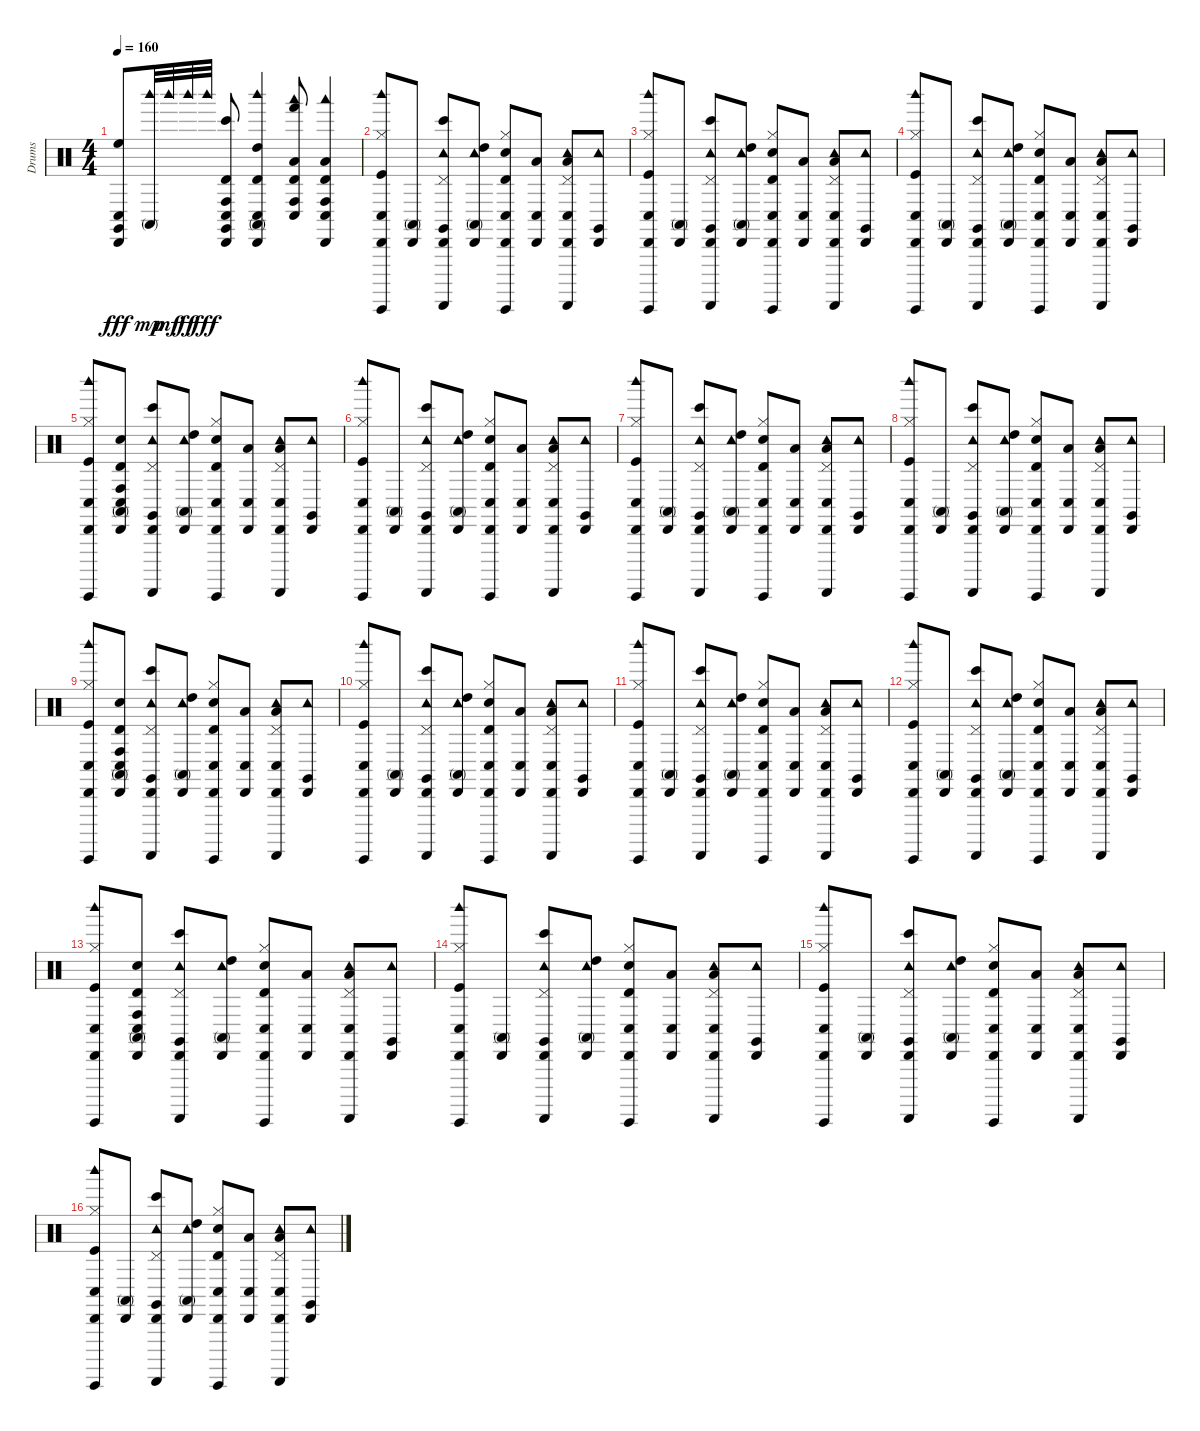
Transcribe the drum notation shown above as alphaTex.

\track ("Drums" "Drums") {instrument percussion}
\staff {score}
\articulation defaults
\ts (4 4)
\tempo 160
\clef neutral
\ks c
("Conga low (hit)" "High Floor Tom (hit)" "Cabasa (hit)" "Claves (hit)").8{dy fff} ("Conga high (mute)" "Woodblock high (hit)").32{dy mp} "Woodblock high (hit)".32{dy mf} "Woodblock high (hit)".32{dy ff} "Woodblock high (hit)".32{dy fff} ("Claves (hit)" "Bongo High (hit)" "Cabasa (hit)" "Timbale high (hit)" "Conga low (hit)" "Conga high (hit)").8 ("Woodblock high (hit)" "High Tom (hit)" "Conga high (mute)" "Cabasa (hit)" "Timbale high (hit)" "Conga low (hit)").4 ("Conga low (hit)" "Low Tom (hit)" "Woodblock low (hit)" "Timbale high (hit)" "Conga high (hit)" "Hand (hit)").8 ("Conga low (hit)" "Low Tom (hit)" "Cabasa (hit)" "Woodblock low (hit)" "Timbale high (hit)" "Conga high (hit)").4 |
("Kick (hit)" "Cabasa (hit)" "Hi-Hat (closed)" "Guiro (hit)" "Woodblock high (hit)" "Conga low (hit)").8 ("Cabasa (hit)" "Conga high (mute)").8 ("Tambourine (hit)" "Cabasa (hit)" "Pedal Hi-Hat (hit)" "Guiro (scrap-return)" "Claves (hit)" "Bongo High (hit)").8 ("Tambourine (hit)" "Cabasa (hit)" "High Tom (hit)" "Conga high (mute)").8 ("Electric Snare (hit)" "Cabasa (hit)" "Hi-Hat (closed)" "Guiro (hit)" "Timbale high (hit)" "Conga low (hit)").8 ("Cabasa (hit)" "Conga low (hit)" "Low Tom (hit)").8 ("Tambourine (hit)" "Cabasa (hit)" "Pedal Hi-Hat (hit)" "Guiro (scrap-return)" "Conga low (hit)" "Low Tom (hit)").8 ("Tambourine (hit)" "Cabasa (hit)" "Claves (hit)").8 |
("Kick (hit)" "Cabasa (hit)" "Hi-Hat (closed)" "Guiro (hit)" "Woodblock high (hit)" "Conga low (hit)").8 ("Cabasa (hit)" "Conga high (mute)").8 ("Tambourine (hit)" "Cabasa (hit)" "Pedal Hi-Hat (hit)" "Guiro (scrap-return)" "Claves (hit)" "Bongo High (hit)").8 ("Tambourine (hit)" "Cabasa (hit)" "High Tom (hit)" "Conga high (mute)").8 ("Electric Snare (hit)" "Cabasa (hit)" "Hi-Hat (closed)" "Guiro (hit)" "Timbale high (hit)" "Conga low (hit)").8 ("Cabasa (hit)" "Conga low (hit)" "Low Tom (hit)").8 ("Tambourine (hit)" "Cabasa (hit)" "Pedal Hi-Hat (hit)" "Guiro (scrap-return)" "Conga low (hit)" "Low Tom (hit)").8 ("Tambourine (hit)" "Cabasa (hit)" "Claves (hit)").8 |
("Kick (hit)" "Cabasa (hit)" "Hi-Hat (closed)" "Guiro (hit)" "Woodblock high (hit)" "Conga low (hit)").8 ("Cabasa (hit)" "Conga high (mute)").8 ("Tambourine (hit)" "Cabasa (hit)" "Pedal Hi-Hat (hit)" "Guiro (scrap-return)" "Claves (hit)" "Bongo High (hit)").8 ("Tambourine (hit)" "Cabasa (hit)" "High Tom (hit)" "Conga high (mute)").8 ("Electric Snare (hit)" "Cabasa (hit)" "Hi-Hat (closed)" "Guiro (hit)" "Timbale high (hit)" "Conga low (hit)").8 ("Cabasa (hit)" "Conga low (hit)" "Low Tom (hit)").8 ("Tambourine (hit)" "Cabasa (hit)" "Pedal Hi-Hat (hit)" "Guiro (scrap-return)" "Conga low (hit)" "Low Tom (hit)").8 ("Tambourine (hit)" "Cabasa (hit)" "Claves (hit)").8 |
("Kick (hit)" "Cabasa (hit)" "Hi-Hat (closed)" "Guiro (hit)" "Woodblock high (hit)" "Conga low (hit)").8 ("Cabasa (hit)" "Conga high (mute)" "Electric Snare (hit)" "Timbale high (hit)" "Conga low (hit)" "Conga high (hit)").8 ("Tambourine (hit)" "Cabasa (hit)" "Pedal Hi-Hat (hit)" "Guiro (scrap-return)" "Claves (hit)" "Bongo High (hit)").8 ("Tambourine (hit)" "Cabasa (hit)" "High Tom (hit)" "Conga high (mute)").8 ("Electric Snare (hit)" "Cabasa (hit)" "Hi-Hat (closed)" "Guiro (hit)" "Timbale high (hit)" "Conga low (hit)").8 ("Cabasa (hit)" "Conga low (hit)" "Low Tom (hit)").8 ("Tambourine (hit)" "Cabasa (hit)" "Pedal Hi-Hat (hit)" "Guiro (scrap-return)" "Conga low (hit)" "Low Tom (hit)").8 ("Tambourine (hit)" "Cabasa (hit)" "Claves (hit)").8 |
("Kick (hit)" "Cabasa (hit)" "Hi-Hat (closed)" "Guiro (hit)" "Woodblock high (hit)" "Conga low (hit)").8 ("Cabasa (hit)" "Conga high (mute)").8 ("Tambourine (hit)" "Cabasa (hit)" "Pedal Hi-Hat (hit)" "Guiro (scrap-return)" "Claves (hit)" "Bongo High (hit)").8 ("Tambourine (hit)" "Cabasa (hit)" "High Tom (hit)" "Conga high (mute)").8 ("Electric Snare (hit)" "Cabasa (hit)" "Hi-Hat (closed)" "Guiro (hit)" "Timbale high (hit)" "Conga low (hit)").8 ("Cabasa (hit)" "Conga low (hit)" "Low Tom (hit)").8 ("Tambourine (hit)" "Cabasa (hit)" "Pedal Hi-Hat (hit)" "Guiro (scrap-return)" "Conga low (hit)" "Low Tom (hit)").8 ("Tambourine (hit)" "Cabasa (hit)" "Claves (hit)").8 |
("Kick (hit)" "Cabasa (hit)" "Hi-Hat (closed)" "Guiro (hit)" "Woodblock high (hit)" "Conga low (hit)").8 ("Cabasa (hit)" "Conga high (mute)").8 ("Tambourine (hit)" "Cabasa (hit)" "Pedal Hi-Hat (hit)" "Guiro (scrap-return)" "Claves (hit)" "Bongo High (hit)").8 ("Tambourine (hit)" "Cabasa (hit)" "High Tom (hit)" "Conga high (mute)").8 ("Electric Snare (hit)" "Cabasa (hit)" "Hi-Hat (closed)" "Guiro (hit)" "Timbale high (hit)" "Conga low (hit)").8 ("Cabasa (hit)" "Conga low (hit)" "Low Tom (hit)").8 ("Tambourine (hit)" "Cabasa (hit)" "Pedal Hi-Hat (hit)" "Guiro (scrap-return)" "Conga low (hit)" "Low Tom (hit)").8 ("Tambourine (hit)" "Cabasa (hit)" "Claves (hit)").8 |
("Kick (hit)" "Cabasa (hit)" "Hi-Hat (closed)" "Guiro (hit)" "Woodblock high (hit)" "Conga low (hit)").8 ("Cabasa (hit)" "Conga high (mute)").8 ("Tambourine (hit)" "Cabasa (hit)" "Pedal Hi-Hat (hit)" "Guiro (scrap-return)" "Claves (hit)" "Bongo High (hit)").8 ("Tambourine (hit)" "Cabasa (hit)" "High Tom (hit)" "Conga high (mute)").8 ("Electric Snare (hit)" "Cabasa (hit)" "Hi-Hat (closed)" "Guiro (hit)" "Timbale high (hit)" "Conga low (hit)").8 ("Cabasa (hit)" "Conga low (hit)" "Low Tom (hit)").8 ("Tambourine (hit)" "Cabasa (hit)" "Pedal Hi-Hat (hit)" "Guiro (scrap-return)" "Conga low (hit)" "Low Tom (hit)").8 ("Tambourine (hit)" "Cabasa (hit)" "Claves (hit)").8 |
("Kick (hit)" "Cabasa (hit)" "Hi-Hat (closed)" "Guiro (hit)" "Woodblock high (hit)" "Conga low (hit)").8 ("Cabasa (hit)" "Conga high (mute)" "Electric Snare (hit)" "Timbale high (hit)" "Conga low (hit)" "Conga high (hit)").8 ("Tambourine (hit)" "Cabasa (hit)" "Pedal Hi-Hat (hit)" "Guiro (scrap-return)" "Claves (hit)" "Bongo High (hit)").8 ("Tambourine (hit)" "Cabasa (hit)" "High Tom (hit)" "Conga high (mute)").8 ("Electric Snare (hit)" "Cabasa (hit)" "Hi-Hat (closed)" "Guiro (hit)" "Timbale high (hit)" "Conga low (hit)").8 ("Cabasa (hit)" "Conga low (hit)" "Low Tom (hit)").8 ("Tambourine (hit)" "Cabasa (hit)" "Pedal Hi-Hat (hit)" "Guiro (scrap-return)" "Conga low (hit)" "Low Tom (hit)").8 ("Tambourine (hit)" "Cabasa (hit)" "Claves (hit)").8 |
("Kick (hit)" "Cabasa (hit)" "Hi-Hat (closed)" "Guiro (hit)" "Woodblock high (hit)" "Conga low (hit)").8 ("Cabasa (hit)" "Conga high (mute)").8 ("Tambourine (hit)" "Cabasa (hit)" "Pedal Hi-Hat (hit)" "Guiro (scrap-return)" "Claves (hit)" "Bongo High (hit)").8 ("Tambourine (hit)" "Cabasa (hit)" "High Tom (hit)" "Conga high (mute)").8 ("Electric Snare (hit)" "Cabasa (hit)" "Hi-Hat (closed)" "Guiro (hit)" "Timbale high (hit)" "Conga low (hit)").8 ("Cabasa (hit)" "Conga low (hit)" "Low Tom (hit)").8 ("Tambourine (hit)" "Cabasa (hit)" "Pedal Hi-Hat (hit)" "Guiro (scrap-return)" "Conga low (hit)" "Low Tom (hit)").8 ("Tambourine (hit)" "Cabasa (hit)" "Claves (hit)").8 |
("Kick (hit)" "Cabasa (hit)" "Hi-Hat (closed)" "Guiro (hit)" "Woodblock high (hit)" "Conga low (hit)").8 ("Cabasa (hit)" "Conga high (mute)").8 ("Tambourine (hit)" "Cabasa (hit)" "Pedal Hi-Hat (hit)" "Guiro (scrap-return)" "Claves (hit)" "Bongo High (hit)").8 ("Tambourine (hit)" "Cabasa (hit)" "High Tom (hit)" "Conga high (mute)").8 ("Electric Snare (hit)" "Cabasa (hit)" "Hi-Hat (closed)" "Guiro (hit)" "Timbale high (hit)" "Conga low (hit)").8 ("Cabasa (hit)" "Conga low (hit)" "Low Tom (hit)").8 ("Tambourine (hit)" "Cabasa (hit)" "Pedal Hi-Hat (hit)" "Guiro (scrap-return)" "Conga low (hit)" "Low Tom (hit)").8 ("Tambourine (hit)" "Cabasa (hit)" "Claves (hit)").8 |
("Kick (hit)" "Cabasa (hit)" "Hi-Hat (closed)" "Guiro (hit)" "Woodblock high (hit)" "Conga low (hit)").8 ("Cabasa (hit)" "Conga high (mute)").8 ("Tambourine (hit)" "Cabasa (hit)" "Pedal Hi-Hat (hit)" "Guiro (scrap-return)" "Claves (hit)" "Bongo High (hit)").8 ("Tambourine (hit)" "Cabasa (hit)" "High Tom (hit)" "Conga high (mute)").8 ("Electric Snare (hit)" "Cabasa (hit)" "Hi-Hat (closed)" "Guiro (hit)" "Timbale high (hit)" "Conga low (hit)").8 ("Cabasa (hit)" "Conga low (hit)" "Low Tom (hit)").8 ("Tambourine (hit)" "Cabasa (hit)" "Pedal Hi-Hat (hit)" "Guiro (scrap-return)" "Conga low (hit)" "Low Tom (hit)").8 ("Tambourine (hit)" "Cabasa (hit)" "Claves (hit)").8 |
("Kick (hit)" "Cabasa (hit)" "Hi-Hat (closed)" "Guiro (hit)" "Woodblock high (hit)" "Conga low (hit)").8 ("Cabasa (hit)" "Conga high (mute)" "Electric Snare (hit)" "Timbale high (hit)" "Conga low (hit)" "Conga high (hit)").8 ("Tambourine (hit)" "Cabasa (hit)" "Pedal Hi-Hat (hit)" "Guiro (scrap-return)" "Claves (hit)" "Bongo High (hit)").8 ("Tambourine (hit)" "Cabasa (hit)" "High Tom (hit)" "Conga high (mute)").8 ("Electric Snare (hit)" "Cabasa (hit)" "Hi-Hat (closed)" "Guiro (hit)" "Timbale high (hit)" "Conga low (hit)").8 ("Cabasa (hit)" "Conga low (hit)" "Low Tom (hit)").8 ("Tambourine (hit)" "Cabasa (hit)" "Pedal Hi-Hat (hit)" "Guiro (scrap-return)" "Conga low (hit)" "Low Tom (hit)").8 ("Tambourine (hit)" "Cabasa (hit)" "Claves (hit)").8 |
("Kick (hit)" "Cabasa (hit)" "Hi-Hat (closed)" "Guiro (hit)" "Woodblock high (hit)" "Conga low (hit)").8 ("Cabasa (hit)" "Conga high (mute)").8 ("Tambourine (hit)" "Cabasa (hit)" "Pedal Hi-Hat (hit)" "Guiro (scrap-return)" "Claves (hit)" "Bongo High (hit)").8 ("Tambourine (hit)" "Cabasa (hit)" "High Tom (hit)" "Conga high (mute)").8 ("Electric Snare (hit)" "Cabasa (hit)" "Hi-Hat (closed)" "Guiro (hit)" "Timbale high (hit)" "Conga low (hit)").8 ("Cabasa (hit)" "Conga low (hit)" "Low Tom (hit)").8 ("Tambourine (hit)" "Cabasa (hit)" "Pedal Hi-Hat (hit)" "Guiro (scrap-return)" "Conga low (hit)" "Low Tom (hit)").8 ("Tambourine (hit)" "Cabasa (hit)" "Claves (hit)").8 |
("Kick (hit)" "Cabasa (hit)" "Hi-Hat (closed)" "Guiro (hit)" "Woodblock high (hit)" "Conga low (hit)").8 ("Cabasa (hit)" "Conga high (mute)").8 ("Tambourine (hit)" "Cabasa (hit)" "Pedal Hi-Hat (hit)" "Guiro (scrap-return)" "Claves (hit)" "Bongo High (hit)").8 ("Tambourine (hit)" "Cabasa (hit)" "High Tom (hit)" "Conga high (mute)").8 ("Electric Snare (hit)" "Cabasa (hit)" "Hi-Hat (closed)" "Guiro (hit)" "Timbale high (hit)" "Conga low (hit)").8 ("Cabasa (hit)" "Conga low (hit)" "Low Tom (hit)").8 ("Tambourine (hit)" "Cabasa (hit)" "Pedal Hi-Hat (hit)" "Guiro (scrap-return)" "Conga low (hit)" "Low Tom (hit)").8 ("Tambourine (hit)" "Cabasa (hit)" "Claves (hit)").8 |
("Kick (hit)" "Cabasa (hit)" "Hi-Hat (closed)" "Guiro (hit)" "Woodblock high (hit)" "Conga low (hit)").8 ("Cabasa (hit)" "Conga high (mute)").8 ("Tambourine (hit)" "Cabasa (hit)" "Pedal Hi-Hat (hit)" "Guiro (scrap-return)" "Claves (hit)" "Bongo High (hit)").8 ("Tambourine (hit)" "Cabasa (hit)" "High Tom (hit)" "Conga high (mute)").8 ("Electric Snare (hit)" "Cabasa (hit)" "Hi-Hat (closed)" "Guiro (hit)" "Timbale high (hit)" "Conga low (hit)").8 ("Cabasa (hit)" "Conga low (hit)" "Low Tom (hit)").8 ("Tambourine (hit)" "Cabasa (hit)" "Pedal Hi-Hat (hit)" "Guiro (scrap-return)" "Conga low (hit)" "Low Tom (hit)").8 ("Tambourine (hit)" "Cabasa (hit)" "Claves (hit)").8
